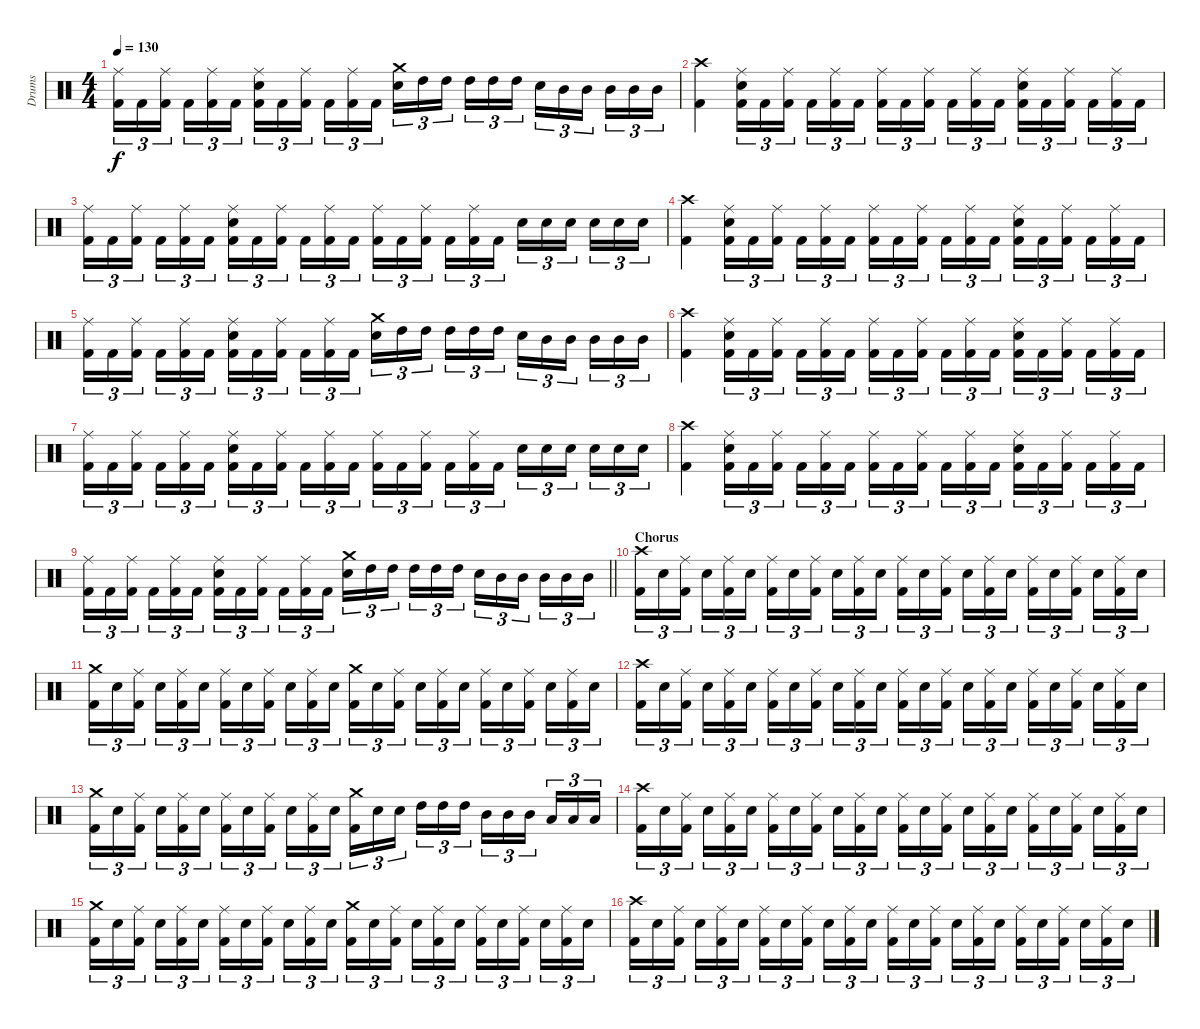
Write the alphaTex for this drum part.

\track ("Drums" "Drums") {instrument percussion}
\staff {score}
\articulation defaults
\ts (4 4)
\tempo 130
\clef neutral
\ks c
("Ride (middle)" "Kick (hit) 2").16{tu (3 2) dy f} "Kick (hit) 2".16{tu (3 2)} ("Ride (middle)" "Kick (hit) 2").16{tu (3 2) beam splitsecondary} "Kick (hit) 2".16{tu (3 2)} ("Ride (middle)" "Kick (hit) 2").16{tu (3 2)} "Kick (hit) 2".16{tu (3 2)} ("Ride (middle)" "Electric Snare (hit)" "Kick (hit) 2").16{tu (3 2)} "Kick (hit) 2".16{tu (3 2)} ("Ride (middle)" "Kick (hit) 2").16{tu (3 2) beam splitsecondary} "Kick (hit) 2".16{tu (3 2)} ("Ride (middle)" "Kick (hit) 2").16{tu (3 2)} "Kick (hit) 2".16{tu (3 2)} ("Crash medium (hit)" "Electric Snare (hit)").16{tu (3 2)} "High Tom (hit)".16{tu (3 2)} "High Tom (hit)".16{tu (3 2) beam splitsecondary} "High Tom (hit)".16{tu (3 2)} "High Tom (hit)".16{tu (3 2)} "High Tom (hit)".16{tu (3 2)} "Electric Snare (hit)".16{tu (3 2)} "Mid Tom (hit)".16{tu (3 2)} "Mid Tom (hit)".16{tu (3 2) beam splitsecondary} "Mid Tom (hit)".16{tu (3 2)} "Mid Tom (hit)".16{tu (3 2)} "Mid Tom (hit)".16{tu (3 2)} |
("Crash high (hit)" "Kick (hit) 2").4 ("Ride (middle)" "Electric Snare (hit)" "Kick (hit) 2").16{tu (3 2)} "Kick (hit) 2".16{tu (3 2)} ("Ride (middle)" "Kick (hit) 2").16{tu (3 2) beam splitsecondary} "Kick (hit) 2".16{tu (3 2)} ("Ride (middle)" "Kick (hit) 2").16{tu (3 2)} "Kick (hit) 2".16{tu (3 2)} ("Ride (middle)" "Kick (hit) 2").16{tu (3 2)} "Kick (hit) 2".16{tu (3 2)} ("Ride (middle)" "Kick (hit) 2").16{tu (3 2) beam splitsecondary} "Kick (hit) 2".16{tu (3 2)} ("Ride (middle)" "Kick (hit) 2").16{tu (3 2)} "Kick (hit) 2".16{tu (3 2)} ("Ride (middle)" "Electric Snare (hit)" "Kick (hit) 2").16{tu (3 2)} "Kick (hit) 2".16{tu (3 2)} ("Ride (middle)" "Kick (hit) 2").16{tu (3 2) beam splitsecondary} "Kick (hit) 2".16{tu (3 2)} ("Ride (middle)" "Kick (hit) 2").16{tu (3 2)} "Kick (hit) 2".16{tu (3 2)} |
("Ride (middle)" "Kick (hit) 2").16{tu (3 2)} "Kick (hit) 2".16{tu (3 2)} ("Ride (middle)" "Kick (hit) 2").16{tu (3 2) beam splitsecondary} "Kick (hit) 2".16{tu (3 2)} ("Ride (middle)" "Kick (hit) 2").16{tu (3 2)} "Kick (hit) 2".16{tu (3 2)} ("Ride (middle)" "Electric Snare (hit)" "Kick (hit) 2").16{tu (3 2)} "Kick (hit) 2".16{tu (3 2)} ("Ride (middle)" "Kick (hit) 2").16{tu (3 2) beam splitsecondary} "Kick (hit) 2".16{tu (3 2)} ("Ride (middle)" "Kick (hit) 2").16{tu (3 2)} "Kick (hit) 2".16{tu (3 2)} ("Ride (middle)" "Kick (hit) 2").16{tu (3 2)} "Kick (hit) 2".16{tu (3 2)} ("Ride (middle)" "Kick (hit) 2").16{tu (3 2) beam splitsecondary} "Kick (hit) 2".16{tu (3 2)} ("Ride (middle)" "Kick (hit) 2").16{tu (3 2)} "Kick (hit) 2".16{tu (3 2)} "Electric Snare (hit)".16{tu (3 2)} "Electric Snare (hit)".16{tu (3 2)} "Electric Snare (hit)".16{tu (3 2) beam splitsecondary} "Electric Snare (hit)".16{tu (3 2)} "Electric Snare (hit)".16{tu (3 2)} "Electric Snare (hit)".16{tu (3 2)} |
("Crash high (hit)" "Kick (hit) 2").4 ("Ride (middle)" "Electric Snare (hit)" "Kick (hit) 2").16{tu (3 2)} "Kick (hit) 2".16{tu (3 2)} ("Ride (middle)" "Kick (hit) 2").16{tu (3 2) beam splitsecondary} "Kick (hit) 2".16{tu (3 2)} ("Ride (middle)" "Kick (hit) 2").16{tu (3 2)} "Kick (hit) 2".16{tu (3 2)} ("Ride (middle)" "Kick (hit) 2").16{tu (3 2)} "Kick (hit) 2".16{tu (3 2)} ("Ride (middle)" "Kick (hit) 2").16{tu (3 2) beam splitsecondary} "Kick (hit) 2".16{tu (3 2)} ("Ride (middle)" "Kick (hit) 2").16{tu (3 2)} "Kick (hit) 2".16{tu (3 2)} ("Ride (middle)" "Electric Snare (hit)" "Kick (hit) 2").16{tu (3 2)} "Kick (hit) 2".16{tu (3 2)} ("Ride (middle)" "Kick (hit) 2").16{tu (3 2) beam splitsecondary} "Kick (hit) 2".16{tu (3 2)} ("Ride (middle)" "Kick (hit) 2").16{tu (3 2)} "Kick (hit) 2".16{tu (3 2)} |
("Ride (middle)" "Kick (hit) 2").16{tu (3 2)} "Kick (hit) 2".16{tu (3 2)} ("Ride (middle)" "Kick (hit) 2").16{tu (3 2) beam splitsecondary} "Kick (hit) 2".16{tu (3 2)} ("Ride (middle)" "Kick (hit) 2").16{tu (3 2)} "Kick (hit) 2".16{tu (3 2)} ("Ride (middle)" "Electric Snare (hit)" "Kick (hit) 2").16{tu (3 2)} "Kick (hit) 2".16{tu (3 2)} ("Ride (middle)" "Kick (hit) 2").16{tu (3 2) beam splitsecondary} "Kick (hit) 2".16{tu (3 2)} ("Ride (middle)" "Kick (hit) 2").16{tu (3 2)} "Kick (hit) 2".16{tu (3 2)} ("Crash medium (hit)" "Electric Snare (hit)").16{tu (3 2)} "High Tom (hit)".16{tu (3 2)} "High Tom (hit)".16{tu (3 2) beam splitsecondary} "High Tom (hit)".16{tu (3 2)} "High Tom (hit)".16{tu (3 2)} "High Tom (hit)".16{tu (3 2)} "Electric Snare (hit)".16{tu (3 2)} "Mid Tom (hit)".16{tu (3 2)} "Mid Tom (hit)".16{tu (3 2) beam splitsecondary} "Mid Tom (hit)".16{tu (3 2)} "Mid Tom (hit)".16{tu (3 2)} "Mid Tom (hit)".16{tu (3 2)} |
("Crash high (hit)" "Kick (hit) 2").4 ("Ride (middle)" "Electric Snare (hit)" "Kick (hit) 2").16{tu (3 2)} "Kick (hit) 2".16{tu (3 2)} ("Ride (middle)" "Kick (hit) 2").16{tu (3 2) beam splitsecondary} "Kick (hit) 2".16{tu (3 2)} ("Ride (middle)" "Kick (hit) 2").16{tu (3 2)} "Kick (hit) 2".16{tu (3 2)} ("Ride (middle)" "Kick (hit) 2").16{tu (3 2)} "Kick (hit) 2".16{tu (3 2)} ("Ride (middle)" "Kick (hit) 2").16{tu (3 2) beam splitsecondary} "Kick (hit) 2".16{tu (3 2)} ("Ride (middle)" "Kick (hit) 2").16{tu (3 2)} "Kick (hit) 2".16{tu (3 2)} ("Ride (middle)" "Electric Snare (hit)" "Kick (hit) 2").16{tu (3 2)} "Kick (hit) 2".16{tu (3 2)} ("Ride (middle)" "Kick (hit) 2").16{tu (3 2) beam splitsecondary} "Kick (hit) 2".16{tu (3 2)} ("Ride (middle)" "Kick (hit) 2").16{tu (3 2)} "Kick (hit) 2".16{tu (3 2)} |
("Ride (middle)" "Kick (hit) 2").16{tu (3 2)} "Kick (hit) 2".16{tu (3 2)} ("Ride (middle)" "Kick (hit) 2").16{tu (3 2) beam splitsecondary} "Kick (hit) 2".16{tu (3 2)} ("Ride (middle)" "Kick (hit) 2").16{tu (3 2)} "Kick (hit) 2".16{tu (3 2)} ("Ride (middle)" "Electric Snare (hit)" "Kick (hit) 2").16{tu (3 2)} "Kick (hit) 2".16{tu (3 2)} ("Ride (middle)" "Kick (hit) 2").16{tu (3 2) beam splitsecondary} "Kick (hit) 2".16{tu (3 2)} ("Ride (middle)" "Kick (hit) 2").16{tu (3 2)} "Kick (hit) 2".16{tu (3 2)} ("Ride (middle)" "Kick (hit) 2").16{tu (3 2)} "Kick (hit) 2".16{tu (3 2)} ("Ride (middle)" "Kick (hit) 2").16{tu (3 2) beam splitsecondary} "Kick (hit) 2".16{tu (3 2)} ("Ride (middle)" "Kick (hit) 2").16{tu (3 2)} "Kick (hit) 2".16{tu (3 2)} "Electric Snare (hit)".16{tu (3 2)} "Electric Snare (hit)".16{tu (3 2)} "Electric Snare (hit)".16{tu (3 2) beam splitsecondary} "Electric Snare (hit)".16{tu (3 2)} "Electric Snare (hit)".16{tu (3 2)} "Electric Snare (hit)".16{tu (3 2)} |
("Crash high (hit)" "Kick (hit) 2").4 ("Ride (middle)" "Electric Snare (hit)" "Kick (hit) 2").16{tu (3 2)} "Kick (hit) 2".16{tu (3 2)} ("Ride (middle)" "Kick (hit) 2").16{tu (3 2) beam splitsecondary} "Kick (hit) 2".16{tu (3 2)} ("Ride (middle)" "Kick (hit) 2").16{tu (3 2)} "Kick (hit) 2".16{tu (3 2)} ("Ride (middle)" "Kick (hit) 2").16{tu (3 2)} "Kick (hit) 2".16{tu (3 2)} ("Ride (middle)" "Kick (hit) 2").16{tu (3 2) beam splitsecondary} "Kick (hit) 2".16{tu (3 2)} ("Ride (middle)" "Kick (hit) 2").16{tu (3 2)} "Kick (hit) 2".16{tu (3 2)} ("Ride (middle)" "Electric Snare (hit)" "Kick (hit) 2").16{tu (3 2)} "Kick (hit) 2".16{tu (3 2)} ("Ride (middle)" "Kick (hit) 2").16{tu (3 2) beam splitsecondary} "Kick (hit) 2".16{tu (3 2)} ("Ride (middle)" "Kick (hit) 2").16{tu (3 2)} "Kick (hit) 2".16{tu (3 2)} |
\barLineRight lightlight
("Ride (middle)" "Kick (hit) 2").16{tu (3 2)} "Kick (hit) 2".16{tu (3 2)} ("Ride (middle)" "Kick (hit) 2").16{tu (3 2) beam splitsecondary} "Kick (hit) 2".16{tu (3 2)} ("Ride (middle)" "Kick (hit) 2").16{tu (3 2)} "Kick (hit) 2".16{tu (3 2)} ("Ride (middle)" "Electric Snare (hit)" "Kick (hit) 2").16{tu (3 2)} "Kick (hit) 2".16{tu (3 2)} ("Ride (middle)" "Kick (hit) 2").16{tu (3 2) beam splitsecondary} "Kick (hit) 2".16{tu (3 2)} ("Ride (middle)" "Kick (hit) 2").16{tu (3 2)} "Kick (hit) 2".16{tu (3 2)} ("Crash medium (hit)" "Electric Snare (hit)").16{tu (3 2)} "High Tom (hit)".16{tu (3 2)} "High Tom (hit)".16{tu (3 2) beam splitsecondary} "High Tom (hit)".16{tu (3 2)} "High Tom (hit)".16{tu (3 2)} "High Tom (hit)".16{tu (3 2)} "Electric Snare (hit)".16{tu (3 2)} "Mid Tom (hit)".16{tu (3 2)} "Mid Tom (hit)".16{tu (3 2) beam splitsecondary} "Mid Tom (hit)".16{tu (3 2)} "Mid Tom (hit)".16{tu (3 2)} "Mid Tom (hit)".16{tu (3 2)} |
\section ("" "Chorus")
("Crash high (hit)" "Kick (hit) 2").16{tu (3 2)} "Electric Snare (hit)".16{tu (3 2)} ("Ride (middle)" "Kick (hit) 2").16{tu (3 2) beam splitsecondary} "Electric Snare (hit)".16{tu (3 2)} ("Ride (middle)" "Kick (hit) 2").16{tu (3 2)} "Electric Snare (hit)".16{tu (3 2)} ("Ride (middle)" "Kick (hit) 2").16{tu (3 2)} "Electric Snare (hit)".16{tu (3 2)} ("Ride (middle)" "Kick (hit) 2").16{tu (3 2) beam splitsecondary} "Electric Snare (hit)".16{tu (3 2)} ("Ride (middle)" "Kick (hit) 2").16{tu (3 2)} "Electric Snare (hit)".16{tu (3 2)} ("Ride (middle)" "Kick (hit) 2").16{tu (3 2)} "Electric Snare (hit)".16{tu (3 2)} ("Ride (middle)" "Kick (hit) 2").16{tu (3 2) beam splitsecondary} "Electric Snare (hit)".16{tu (3 2)} ("Ride (middle)" "Kick (hit) 2").16{tu (3 2)} "Electric Snare (hit)".16{tu (3 2)} ("Ride (middle)" "Kick (hit) 2").16{tu (3 2)} "Electric Snare (hit)".16{tu (3 2)} ("Ride (middle)" "Kick (hit) 2").16{tu (3 2) beam splitsecondary} "Electric Snare (hit)".16{tu (3 2)} ("Ride (middle)" "Kick (hit) 2").16{tu (3 2)} "Electric Snare (hit)".16{tu (3 2)} |
("Crash medium (hit)" "Kick (hit) 2").16{tu (3 2)} "Electric Snare (hit)".16{tu (3 2)} ("Ride (middle)" "Kick (hit) 2").16{tu (3 2) beam splitsecondary} "Electric Snare (hit)".16{tu (3 2)} ("Ride (middle)" "Kick (hit) 2").16{tu (3 2)} "Electric Snare (hit)".16{tu (3 2)} ("Ride (middle)" "Kick (hit) 2").16{tu (3 2)} "Electric Snare (hit)".16{tu (3 2)} ("Ride (middle)" "Kick (hit) 2").16{tu (3 2) beam splitsecondary} "Electric Snare (hit)".16{tu (3 2)} ("Ride (middle)" "Kick (hit) 2").16{tu (3 2)} "Electric Snare (hit)".16{tu (3 2)} ("Crash medium (hit)" "Kick (hit) 2").16{tu (3 2)} "Electric Snare (hit)".16{tu (3 2)} ("Ride (middle)" "Kick (hit) 2").16{tu (3 2) beam splitsecondary} "Electric Snare (hit)".16{tu (3 2)} ("Ride (middle)" "Kick (hit) 2").16{tu (3 2)} "Electric Snare (hit)".16{tu (3 2)} ("Ride (middle)" "Kick (hit) 2").16{tu (3 2)} "Electric Snare (hit)".16{tu (3 2)} ("Ride (middle)" "Kick (hit) 2").16{tu (3 2) beam splitsecondary} "Electric Snare (hit)".16{tu (3 2)} ("Ride (middle)" "Kick (hit) 2").16{tu (3 2)} "Electric Snare (hit)".16{tu (3 2)} |
("Crash high (hit)" "Kick (hit) 2").16{tu (3 2)} "Electric Snare (hit)".16{tu (3 2)} ("Ride (middle)" "Kick (hit) 2").16{tu (3 2) beam splitsecondary} "Electric Snare (hit)".16{tu (3 2)} ("Ride (middle)" "Kick (hit) 2").16{tu (3 2)} "Electric Snare (hit)".16{tu (3 2)} ("Ride (middle)" "Kick (hit) 2").16{tu (3 2)} "Electric Snare (hit)".16{tu (3 2)} ("Ride (middle)" "Kick (hit) 2").16{tu (3 2) beam splitsecondary} "Electric Snare (hit)".16{tu (3 2)} ("Ride (middle)" "Kick (hit) 2").16{tu (3 2)} "Electric Snare (hit)".16{tu (3 2)} ("Ride (middle)" "Kick (hit) 2").16{tu (3 2)} "Electric Snare (hit)".16{tu (3 2)} ("Ride (middle)" "Kick (hit) 2").16{tu (3 2) beam splitsecondary} "Electric Snare (hit)".16{tu (3 2)} ("Ride (middle)" "Kick (hit) 2").16{tu (3 2)} "Electric Snare (hit)".16{tu (3 2)} ("Ride (middle)" "Kick (hit) 2").16{tu (3 2)} "Electric Snare (hit)".16{tu (3 2)} ("Ride (middle)" "Kick (hit) 2").16{tu (3 2) beam splitsecondary} "Electric Snare (hit)".16{tu (3 2)} ("Ride (middle)" "Kick (hit) 2").16{tu (3 2)} "Electric Snare (hit)".16{tu (3 2)} |
("Crash medium (hit)" "Kick (hit) 2").16{tu (3 2)} "Electric Snare (hit)".16{tu (3 2)} ("Ride (middle)" "Kick (hit) 2").16{tu (3 2) beam splitsecondary} "Electric Snare (hit)".16{tu (3 2)} ("Ride (middle)" "Kick (hit) 2").16{tu (3 2)} "Electric Snare (hit)".16{tu (3 2)} ("Ride (middle)" "Kick (hit) 2").16{tu (3 2)} "Electric Snare (hit)".16{tu (3 2)} ("Ride (middle)" "Kick (hit) 2").16{tu (3 2) beam splitsecondary} "Electric Snare (hit)".16{tu (3 2)} ("Ride (middle)" "Kick (hit) 2").16{tu (3 2)} "Electric Snare (hit)".16{tu (3 2)} ("Crash medium (hit)" "Kick (hit) 2").16{tu (3 2)} "Electric Snare (hit)".16{tu (3 2)} "Electric Snare (hit)".16{tu (3 2) beam splitsecondary} "High Tom (hit)".16{tu (3 2)} "High Tom (hit)".16{tu (3 2)} "High Tom (hit)".16{tu (3 2)} "Mid Tom (hit)".16{tu (3 2)} "Mid Tom (hit)".16{tu (3 2)} "Mid Tom (hit)".16{tu (3 2) beam splitsecondary} "Low Tom (hit)".16{tu (3 2)} "Low Tom (hit)".16{tu (3 2)} "Low Tom (hit)".16{tu (3 2)} |
("Crash high (hit)" "Kick (hit) 2").16{tu (3 2)} "Electric Snare (hit)".16{tu (3 2)} ("Ride (middle)" "Kick (hit) 2").16{tu (3 2) beam splitsecondary} "Electric Snare (hit)".16{tu (3 2)} ("Ride (middle)" "Kick (hit) 2").16{tu (3 2)} "Electric Snare (hit)".16{tu (3 2)} ("Ride (middle)" "Kick (hit) 2").16{tu (3 2)} "Electric Snare (hit)".16{tu (3 2)} ("Ride (middle)" "Kick (hit) 2").16{tu (3 2) beam splitsecondary} "Electric Snare (hit)".16{tu (3 2)} ("Ride (middle)" "Kick (hit) 2").16{tu (3 2)} "Electric Snare (hit)".16{tu (3 2)} ("Ride (middle)" "Kick (hit) 2").16{tu (3 2)} "Electric Snare (hit)".16{tu (3 2)} ("Ride (middle)" "Kick (hit) 2").16{tu (3 2) beam splitsecondary} "Electric Snare (hit)".16{tu (3 2)} ("Ride (middle)" "Kick (hit) 2").16{tu (3 2)} "Electric Snare (hit)".16{tu (3 2)} ("Ride (middle)" "Kick (hit) 2").16{tu (3 2)} "Electric Snare (hit)".16{tu (3 2)} ("Ride (middle)" "Kick (hit) 2").16{tu (3 2) beam splitsecondary} "Electric Snare (hit)".16{tu (3 2)} ("Ride (middle)" "Kick (hit) 2").16{tu (3 2)} "Electric Snare (hit)".16{tu (3 2)} |
("Crash medium (hit)" "Kick (hit) 2").16{tu (3 2)} "Electric Snare (hit)".16{tu (3 2)} ("Ride (middle)" "Kick (hit) 2").16{tu (3 2) beam splitsecondary} "Electric Snare (hit)".16{tu (3 2)} ("Ride (middle)" "Kick (hit) 2").16{tu (3 2)} "Electric Snare (hit)".16{tu (3 2)} ("Ride (middle)" "Kick (hit) 2").16{tu (3 2)} "Electric Snare (hit)".16{tu (3 2)} ("Ride (middle)" "Kick (hit) 2").16{tu (3 2) beam splitsecondary} "Electric Snare (hit)".16{tu (3 2)} ("Ride (middle)" "Kick (hit) 2").16{tu (3 2)} "Electric Snare (hit)".16{tu (3 2)} ("Crash medium (hit)" "Kick (hit) 2").16{tu (3 2)} "Electric Snare (hit)".16{tu (3 2)} ("Ride (middle)" "Kick (hit) 2").16{tu (3 2) beam splitsecondary} "Electric Snare (hit)".16{tu (3 2)} ("Ride (middle)" "Kick (hit) 2").16{tu (3 2)} "Electric Snare (hit)".16{tu (3 2)} ("Ride (middle)" "Kick (hit) 2").16{tu (3 2)} "Electric Snare (hit)".16{tu (3 2)} ("Ride (middle)" "Kick (hit) 2").16{tu (3 2) beam splitsecondary} "Electric Snare (hit)".16{tu (3 2)} ("Ride (middle)" "Kick (hit) 2").16{tu (3 2)} "Electric Snare (hit)".16{tu (3 2)} |
("Crash high (hit)" "Kick (hit) 2").16{tu (3 2)} "Electric Snare (hit)".16{tu (3 2)} ("Ride (middle)" "Kick (hit) 2").16{tu (3 2) beam splitsecondary} "Electric Snare (hit)".16{tu (3 2)} ("Ride (middle)" "Kick (hit) 2").16{tu (3 2)} "Electric Snare (hit)".16{tu (3 2)} ("Ride (middle)" "Kick (hit) 2").16{tu (3 2)} "Electric Snare (hit)".16{tu (3 2)} ("Ride (middle)" "Kick (hit) 2").16{tu (3 2) beam splitsecondary} "Electric Snare (hit)".16{tu (3 2)} ("Ride (middle)" "Kick (hit) 2").16{tu (3 2)} "Electric Snare (hit)".16{tu (3 2)} ("Ride (middle)" "Kick (hit) 2").16{tu (3 2)} "Electric Snare (hit)".16{tu (3 2)} ("Ride (middle)" "Kick (hit) 2").16{tu (3 2) beam splitsecondary} "Electric Snare (hit)".16{tu (3 2)} ("Ride (middle)" "Kick (hit) 2").16{tu (3 2)} "Electric Snare (hit)".16{tu (3 2)} ("Ride (middle)" "Kick (hit) 2").16{tu (3 2)} "Electric Snare (hit)".16{tu (3 2)} ("Ride (middle)" "Kick (hit) 2").16{tu (3 2) beam splitsecondary} "Electric Snare (hit)".16{tu (3 2)} ("Ride (middle)" "Kick (hit) 2").16{tu (3 2)} "Electric Snare (hit)".16{tu (3 2)}
